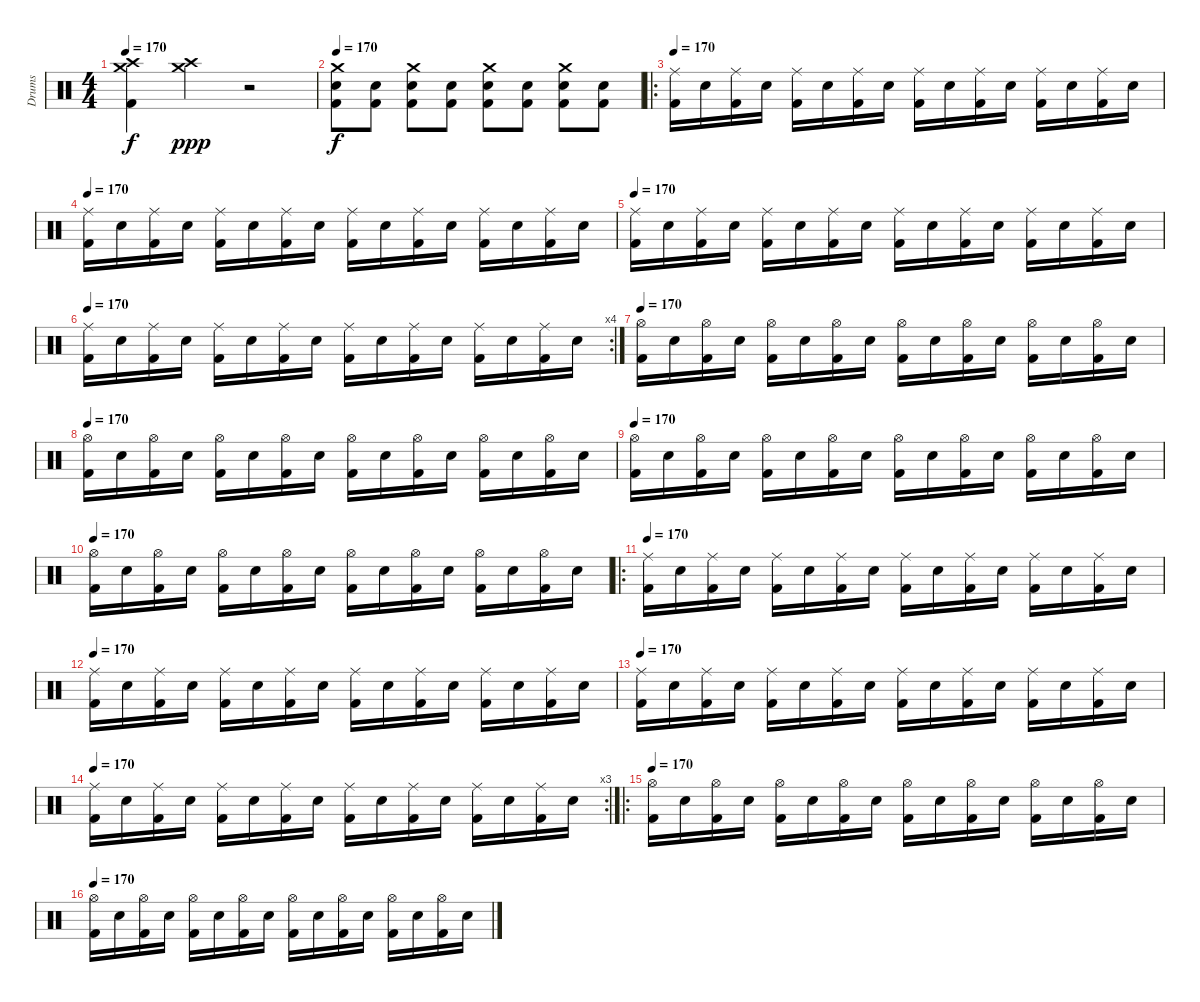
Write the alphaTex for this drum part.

\track ("Drums" "Drums") {instrument percussion}
\staff {score}
\articulation defaults
\ts (4 4)
\tempo 170
\clef neutral
\ks c
("Crash medium (hit)" "Crash high (hit)" "Kick (hit) 2").4{dy f} ("Crash medium (hit)" "Crash high (hit)").4{dy ppp} r.2 |
\tempo 170
("Crash medium (hit)" "Snare (hit) 2" "Kick (hit) 2").8{dy f} ("Snare (hit) 2" "Kick (hit) 2").8 ("Crash medium (hit)" "Snare (hit) 2" "Kick (hit) 2").8 ("Snare (hit) 2" "Kick (hit) 2").8 ("Crash medium (hit)" "Snare (hit) 2" "Kick (hit) 2").8 ("Snare (hit) 2" "Kick (hit) 2").8 ("Crash medium (hit)" "Snare (hit) 2" "Kick (hit) 2").8 ("Snare (hit) 2" "Kick (hit) 2").8 |
\ro
\tempo 170
("Ride (middle)" "Kick (hit) 2").16 "Snare (hit) 2".16 ("Ride (middle)" "Kick (hit) 2").16 "Snare (hit) 2".16 ("Ride (middle)" "Kick (hit) 2").16 "Snare (hit) 2".16 ("Ride (middle)" "Kick (hit) 2").16 "Snare (hit) 2".16 ("Ride (middle)" "Kick (hit) 2").16 "Snare (hit) 2".16 ("Ride (middle)" "Kick (hit) 2").16 "Snare (hit) 2".16 ("Ride (middle)" "Kick (hit) 2").16 "Snare (hit) 2".16 ("Ride (middle)" "Kick (hit) 2").16 "Snare (hit) 2".16 |
\tempo 170
("Ride (middle)" "Kick (hit) 2").16 "Snare (hit) 2".16 ("Ride (middle)" "Kick (hit) 2").16 "Snare (hit) 2".16 ("Ride (middle)" "Kick (hit) 2").16 "Snare (hit) 2".16 ("Ride (middle)" "Kick (hit) 2").16 "Snare (hit) 2".16 ("Ride (middle)" "Kick (hit) 2").16 "Snare (hit) 2".16 ("Ride (middle)" "Kick (hit) 2").16 "Snare (hit) 2".16 ("Ride (middle)" "Kick (hit) 2").16 "Snare (hit) 2".16 ("Ride (middle)" "Kick (hit) 2").16 "Snare (hit) 2".16 |
\tempo 170
("Ride (middle)" "Kick (hit) 2").16 "Snare (hit) 2".16 ("Ride (middle)" "Kick (hit) 2").16 "Snare (hit) 2".16 ("Ride (middle)" "Kick (hit) 2").16 "Snare (hit) 2".16 ("Ride (middle)" "Kick (hit) 2").16 "Snare (hit) 2".16 ("Ride (middle)" "Kick (hit) 2").16 "Snare (hit) 2".16 ("Ride (middle)" "Kick (hit) 2").16 "Snare (hit) 2".16 ("Ride (middle)" "Kick (hit) 2").16 "Snare (hit) 2".16 ("Ride (middle)" "Kick (hit) 2").16 "Snare (hit) 2".16 |
\rc 4
\tempo 170
("Ride (middle)" "Kick (hit) 2").16 "Snare (hit) 2".16 ("Ride (middle)" "Kick (hit) 2").16 "Snare (hit) 2".16 ("Ride (middle)" "Kick (hit) 2").16 "Snare (hit) 2".16 ("Ride (middle)" "Kick (hit) 2").16 "Snare (hit) 2".16 ("Ride (middle)" "Kick (hit) 2").16 "Snare (hit) 2".16 ("Ride (middle)" "Kick (hit) 2").16 "Snare (hit) 2".16 ("Ride (middle)" "Kick (hit) 2").16 "Snare (hit) 2".16 ("Ride (middle)" "Kick (hit) 2").16 "Snare (hit) 2".16 |
\tempo 170
("Hi-Hat (open)" "Kick (hit) 2").16 "Snare (hit) 2".16 ("Hi-Hat (open)" "Kick (hit) 2").16 "Snare (hit) 2".16 ("Hi-Hat (open)" "Kick (hit) 2").16 "Snare (hit) 2".16 ("Hi-Hat (open)" "Kick (hit) 2").16 "Snare (hit) 2".16 ("Hi-Hat (open)" "Kick (hit) 2").16 "Snare (hit) 2".16 ("Hi-Hat (open)" "Kick (hit) 2").16 "Snare (hit) 2".16 ("Hi-Hat (open)" "Kick (hit) 2").16 "Snare (hit) 2".16 ("Hi-Hat (open)" "Kick (hit) 2").16 "Snare (hit) 2".16 |
\tempo 170
("Hi-Hat (open)" "Kick (hit) 2").16 "Snare (hit) 2".16 ("Hi-Hat (open)" "Kick (hit) 2").16 "Snare (hit) 2".16 ("Hi-Hat (open)" "Kick (hit) 2").16 "Snare (hit) 2".16 ("Hi-Hat (open)" "Kick (hit) 2").16 "Snare (hit) 2".16 ("Hi-Hat (open)" "Kick (hit) 2").16 "Snare (hit) 2".16 ("Hi-Hat (open)" "Kick (hit) 2").16 "Snare (hit) 2".16 ("Hi-Hat (open)" "Kick (hit) 2").16 "Snare (hit) 2".16 ("Hi-Hat (open)" "Kick (hit) 2").16 "Snare (hit) 2".16 |
\tempo 170
("Hi-Hat (open)" "Kick (hit) 2").16 "Snare (hit) 2".16 ("Hi-Hat (open)" "Kick (hit) 2").16 "Snare (hit) 2".16 ("Hi-Hat (open)" "Kick (hit) 2").16 "Snare (hit) 2".16 ("Hi-Hat (open)" "Kick (hit) 2").16 "Snare (hit) 2".16 ("Hi-Hat (open)" "Kick (hit) 2").16 "Snare (hit) 2".16 ("Hi-Hat (open)" "Kick (hit) 2").16 "Snare (hit) 2".16 ("Hi-Hat (open)" "Kick (hit) 2").16 "Snare (hit) 2".16 ("Hi-Hat (open)" "Kick (hit) 2").16 "Snare (hit) 2".16 |
\tempo 170
("Hi-Hat (open)" "Kick (hit) 2").16 "Snare (hit) 2".16 ("Hi-Hat (open)" "Kick (hit) 2").16 "Snare (hit) 2".16 ("Hi-Hat (open)" "Kick (hit) 2").16 "Snare (hit) 2".16 ("Hi-Hat (open)" "Kick (hit) 2").16 "Snare (hit) 2".16 ("Hi-Hat (open)" "Kick (hit) 2").16 "Snare (hit) 2".16 ("Hi-Hat (open)" "Kick (hit) 2").16 "Snare (hit) 2".16 ("Hi-Hat (open)" "Kick (hit) 2").16 "Snare (hit) 2".16 ("Hi-Hat (open)" "Kick (hit) 2").16 "Snare (hit) 2".16 |
\ro
\tempo 170
("Ride (middle)" "Kick (hit) 2").16 "Snare (hit) 2".16 ("Ride (middle)" "Kick (hit) 2").16 "Snare (hit) 2".16 ("Ride (middle)" "Kick (hit) 2").16 "Snare (hit) 2".16 ("Ride (middle)" "Kick (hit) 2").16 "Snare (hit) 2".16 ("Ride (middle)" "Kick (hit) 2").16 "Snare (hit) 2".16 ("Ride (middle)" "Kick (hit) 2").16 "Snare (hit) 2".16 ("Ride (middle)" "Kick (hit) 2").16 "Snare (hit) 2".16 ("Ride (middle)" "Kick (hit) 2").16 "Snare (hit) 2".16 |
\tempo 170
("Ride (middle)" "Kick (hit) 2").16 "Snare (hit) 2".16 ("Ride (middle)" "Kick (hit) 2").16 "Snare (hit) 2".16 ("Ride (middle)" "Kick (hit) 2").16 "Snare (hit) 2".16 ("Ride (middle)" "Kick (hit) 2").16 "Snare (hit) 2".16 ("Ride (middle)" "Kick (hit) 2").16 "Snare (hit) 2".16 ("Ride (middle)" "Kick (hit) 2").16 "Snare (hit) 2".16 ("Ride (middle)" "Kick (hit) 2").16 "Snare (hit) 2".16 ("Ride (middle)" "Kick (hit) 2").16 "Snare (hit) 2".16 |
\tempo 170
("Ride (middle)" "Kick (hit) 2").16 "Snare (hit) 2".16 ("Ride (middle)" "Kick (hit) 2").16 "Snare (hit) 2".16 ("Ride (middle)" "Kick (hit) 2").16 "Snare (hit) 2".16 ("Ride (middle)" "Kick (hit) 2").16 "Snare (hit) 2".16 ("Ride (middle)" "Kick (hit) 2").16 "Snare (hit) 2".16 ("Ride (middle)" "Kick (hit) 2").16 "Snare (hit) 2".16 ("Ride (middle)" "Kick (hit) 2").16 "Snare (hit) 2".16 ("Ride (middle)" "Kick (hit) 2").16 "Snare (hit) 2".16 |
\rc 3
\tempo 170
("Ride (middle)" "Kick (hit) 2").16 "Snare (hit) 2".16 ("Ride (middle)" "Kick (hit) 2").16 "Snare (hit) 2".16 ("Ride (middle)" "Kick (hit) 2").16 "Snare (hit) 2".16 ("Ride (middle)" "Kick (hit) 2").16 "Snare (hit) 2".16 ("Ride (middle)" "Kick (hit) 2").16 "Snare (hit) 2".16 ("Ride (middle)" "Kick (hit) 2").16 "Snare (hit) 2".16 ("Ride (middle)" "Kick (hit) 2").16 "Snare (hit) 2".16 ("Ride (middle)" "Kick (hit) 2").16 "Snare (hit) 2".16 |
\ro
\tempo 170
("Hi-Hat (open)" "Kick (hit) 2").16 "Snare (hit) 2".16 ("Hi-Hat (open)" "Kick (hit) 2").16 "Snare (hit) 2".16 ("Hi-Hat (open)" "Kick (hit) 2").16 "Snare (hit) 2".16 ("Hi-Hat (open)" "Kick (hit) 2").16 "Snare (hit) 2".16 ("Hi-Hat (open)" "Kick (hit) 2").16 "Snare (hit) 2".16 ("Hi-Hat (open)" "Kick (hit) 2").16 "Snare (hit) 2".16 ("Hi-Hat (open)" "Kick (hit) 2").16 "Snare (hit) 2".16 ("Hi-Hat (open)" "Kick (hit) 2").16 "Snare (hit) 2".16 |
\tempo 170
("Hi-Hat (open)" "Kick (hit) 2").16 "Snare (hit) 2".16 ("Hi-Hat (open)" "Kick (hit) 2").16 "Snare (hit) 2".16 ("Hi-Hat (open)" "Kick (hit) 2").16 "Snare (hit) 2".16 ("Hi-Hat (open)" "Kick (hit) 2").16 "Snare (hit) 2".16 ("Hi-Hat (open)" "Kick (hit) 2").16 "Snare (hit) 2".16 ("Hi-Hat (open)" "Kick (hit) 2").16 "Snare (hit) 2".16 ("Hi-Hat (open)" "Kick (hit) 2").16 "Snare (hit) 2".16 ("Hi-Hat (open)" "Kick (hit) 2").16 "Snare (hit) 2".16
